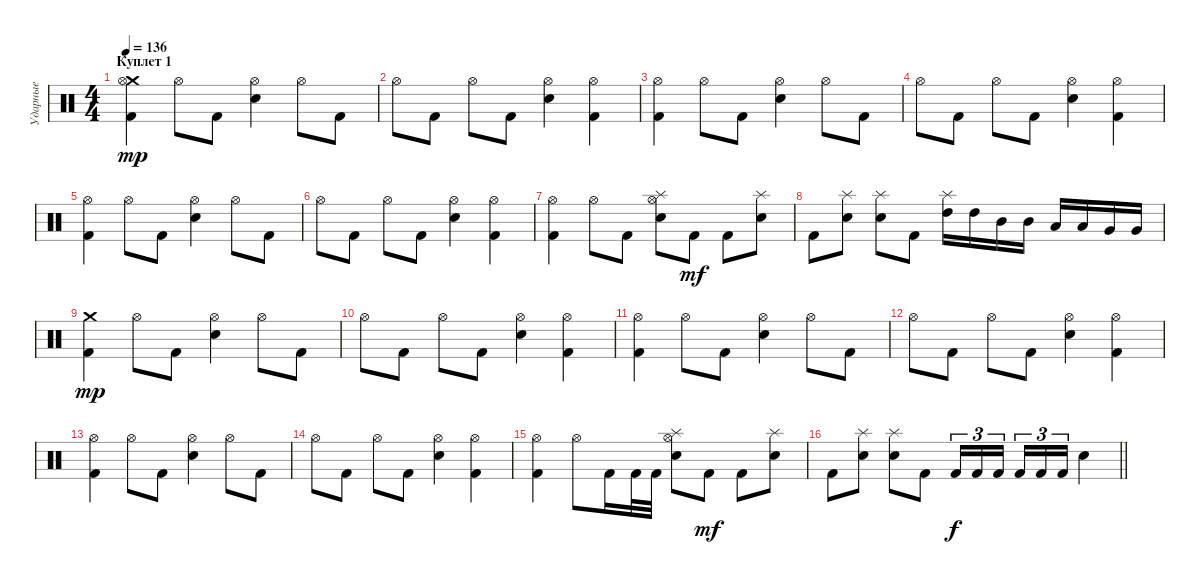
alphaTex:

\track ("Ударные" "Ударные") {instrument percussion}
\staff {score}
\articulation defaults
\ts (4 4)
\section ("" "Куплет 1")
\tempo 136
\clef neutral
\ks c
("Kick (hit) 2" "Crash medium (hit)" "Hi-Hat (open)").4{dy mp} "Hi-Hat (open)".8 "Kick (hit) 2".8 ("Snare (hit) 2" "Hi-Hat (open)").4 "Hi-Hat (open)".8 "Kick (hit) 2".8 |
"Hi-Hat (open)".8 "Kick (hit) 2".8 "Hi-Hat (open)".8 "Kick (hit) 2".8 ("Snare (hit) 2" "Hi-Hat (open)").4 ("Kick (hit) 2" "Hi-Hat (open)").4 |
("Kick (hit) 2" "Hi-Hat (open)").4 "Hi-Hat (open)".8 "Kick (hit) 2".8 ("Snare (hit) 2" "Hi-Hat (open)").4 "Hi-Hat (open)".8 "Kick (hit) 2".8 |
"Hi-Hat (open)".8 "Kick (hit) 2".8 "Hi-Hat (open)".8 "Kick (hit) 2".8 ("Snare (hit) 2" "Hi-Hat (open)").4 ("Kick (hit) 2" "Hi-Hat (open)").4 |
("Kick (hit) 2" "Hi-Hat (open)").4 "Hi-Hat (open)".8 "Kick (hit) 2".8 ("Snare (hit) 2" "Hi-Hat (open)").4 "Hi-Hat (open)".8 "Kick (hit) 2".8 |
"Hi-Hat (open)".8 "Kick (hit) 2".8 "Hi-Hat (open)".8 "Kick (hit) 2".8 ("Snare (hit) 2" "Hi-Hat (open)").4 ("Kick (hit) 2" "Hi-Hat (open)").4 |
("Kick (hit) 2" "Hi-Hat (open)").4 "Hi-Hat (open)".8 "Kick (hit) 2".8 ("Splash (hit)" "Snare (hit) 2" "Hi-Hat (open)").8 "Kick (hit) 2".8{dy mf} "Kick (hit) 2".8 ("Snare (hit) 2" "Splash (hit)").8 |
"Kick (hit) 2".8 ("Splash (hit)" "Snare (hit) 2").8 ("Splash (hit)" "Snare (hit) 2").8 "Kick (hit) 2".8 ("Splash (hit)" "High Tom (hit)").16 "High Tom (hit)".16 "Mid Tom (hit)".16 "Mid Tom (hit)".16 "Low Tom (hit)".16 "Low Tom (hit)".16 "Very Low Tom (hit)".16 "Very Low Tom (hit)".16 |
("Kick (hit) 2" "Crash medium (hit)").4{dy mp} "Hi-Hat (open)".8 "Kick (hit) 2".8 ("Snare (hit) 2" "Hi-Hat (open)").4 "Hi-Hat (open)".8 "Kick (hit) 2".8 |
"Hi-Hat (open)".8 "Kick (hit) 2".8 "Hi-Hat (open)".8 "Kick (hit) 2".8 ("Snare (hit) 2" "Hi-Hat (open)").4 ("Kick (hit) 2" "Hi-Hat (open)").4 |
("Kick (hit) 2" "Hi-Hat (open)").4 "Hi-Hat (open)".8 "Kick (hit) 2".8 ("Snare (hit) 2" "Hi-Hat (open)").4 "Hi-Hat (open)".8 "Kick (hit) 2".8 |
"Hi-Hat (open)".8 "Kick (hit) 2".8 "Hi-Hat (open)".8 "Kick (hit) 2".8 ("Snare (hit) 2" "Hi-Hat (open)").4 ("Kick (hit) 2" "Hi-Hat (open)").4 |
("Kick (hit) 2" "Hi-Hat (open)").4 "Hi-Hat (open)".8 "Kick (hit) 2".8 ("Snare (hit) 2" "Hi-Hat (open)").4 "Hi-Hat (open)".8 "Kick (hit) 2".8 |
"Hi-Hat (open)".8 "Kick (hit) 2".8 "Hi-Hat (open)".8 "Kick (hit) 2".8 ("Snare (hit) 2" "Hi-Hat (open)").4 ("Kick (hit) 2" "Hi-Hat (open)").4 |
("Kick (hit) 2" "Hi-Hat (open)").4 "Hi-Hat (open)".8 "Kick (hit) 2".16 "Kick (hit) 2".32 "Kick (hit) 2".32 ("Splash (hit)" "Snare (hit) 2" "Hi-Hat (open)").8 "Kick (hit) 2".8{dy mf} "Kick (hit) 2".8 ("Snare (hit) 2" "Splash (hit)").8 |
\barLineRight lightlight "Kick (hit) 2".8
("Splash (hit)" "Snare (hit) 2").8 ("Splash (hit)" "Snare (hit) 2").8 "Kick (hit) 2".8 "Kick (hit) 2".16{tu (3 2) dy f} "Kick (hit) 2".16{tu (3 2)} "Kick (hit) 2".16{tu (3 2) beam splitsecondary} "Kick (hit) 2".16{tu (3 2)} "Kick (hit) 2".16{tu (3 2)} "Kick (hit) 2".16{tu (3 2)} "Snare (hit) 2".4
